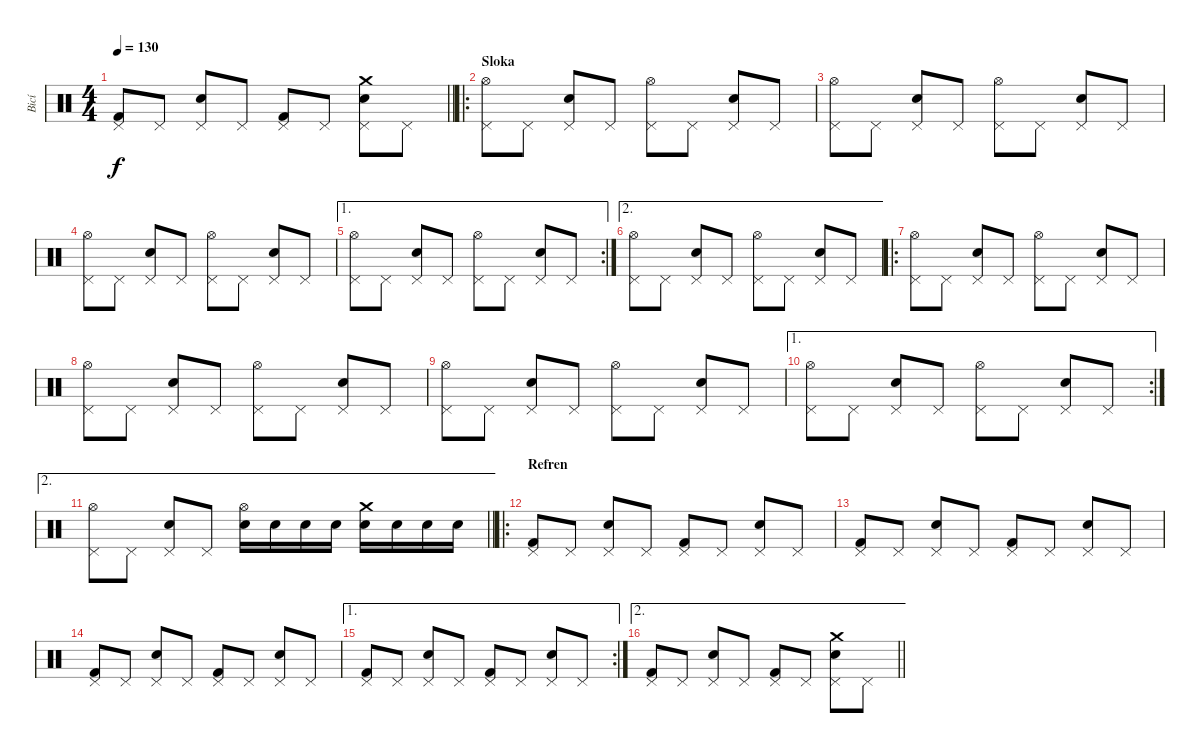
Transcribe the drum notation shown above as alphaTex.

\track ("Bicí" "Bicí") {instrument percussion}
\staff {score}
\articulation defaults
\ts (4 4)
\tempo 130
\clef neutral
\barLineRight lightlight
\ks c
("Kick (hit) 2" "Pedal Hi-Hat (hit)").8{dy f} "Pedal Hi-Hat (hit)".8 ("Snare (hit) 2" "Pedal Hi-Hat (hit)").8 "Pedal Hi-Hat (hit)".8 ("Kick (hit) 2" "Pedal Hi-Hat (hit)").8 "Pedal Hi-Hat (hit)".8 ("Snare (hit) 2" "Crash medium (hit)" "Pedal Hi-Hat (hit)").8 "Pedal Hi-Hat (hit)".8 |
\ro
\section ("" "Sloka")
("Hi-Hat (open)" "Pedal Hi-Hat (hit)").8 "Pedal Hi-Hat (hit)".8 ("Electric Snare (hit)" "Pedal Hi-Hat (hit)").8 "Pedal Hi-Hat (hit)".8 ("Hi-Hat (open)" "Pedal Hi-Hat (hit)").8 "Pedal Hi-Hat (hit)".8 ("Electric Snare (hit)" "Pedal Hi-Hat (hit)").8 "Pedal Hi-Hat (hit)".8 |
("Hi-Hat (open)" "Pedal Hi-Hat (hit)").8 "Pedal Hi-Hat (hit)".8 ("Electric Snare (hit)" "Pedal Hi-Hat (hit)").8 "Pedal Hi-Hat (hit)".8 ("Hi-Hat (open)" "Pedal Hi-Hat (hit)").8 "Pedal Hi-Hat (hit)".8 ("Electric Snare (hit)" "Pedal Hi-Hat (hit)").8 "Pedal Hi-Hat (hit)".8 |
("Hi-Hat (open)" "Pedal Hi-Hat (hit)").8 "Pedal Hi-Hat (hit)".8 ("Electric Snare (hit)" "Pedal Hi-Hat (hit)").8 "Pedal Hi-Hat (hit)".8 ("Hi-Hat (open)" "Pedal Hi-Hat (hit)").8 "Pedal Hi-Hat (hit)".8 ("Electric Snare (hit)" "Pedal Hi-Hat (hit)").8 "Pedal Hi-Hat (hit)".8 |
\ae 1
\rc 2
("Hi-Hat (open)" "Pedal Hi-Hat (hit)").8 "Pedal Hi-Hat (hit)".8 ("Electric Snare (hit)" "Pedal Hi-Hat (hit)").8 "Pedal Hi-Hat (hit)".8 ("Hi-Hat (open)" "Pedal Hi-Hat (hit)").8 "Pedal Hi-Hat (hit)".8 ("Electric Snare (hit)" "Pedal Hi-Hat (hit)").8 "Pedal Hi-Hat (hit)".8 |
\ae 2
("Hi-Hat (open)" "Pedal Hi-Hat (hit)").8 "Pedal Hi-Hat (hit)".8 ("Electric Snare (hit)" "Pedal Hi-Hat (hit)").8 "Pedal Hi-Hat (hit)".8 ("Hi-Hat (open)" "Pedal Hi-Hat (hit)").8 "Pedal Hi-Hat (hit)".8 ("Electric Snare (hit)" "Pedal Hi-Hat (hit)").8 "Pedal Hi-Hat (hit)".8 |
\ro
("Hi-Hat (open)" "Pedal Hi-Hat (hit)").8 "Pedal Hi-Hat (hit)".8 ("Electric Snare (hit)" "Pedal Hi-Hat (hit)").8 "Pedal Hi-Hat (hit)".8 ("Hi-Hat (open)" "Pedal Hi-Hat (hit)").8 "Pedal Hi-Hat (hit)".8 ("Electric Snare (hit)" "Pedal Hi-Hat (hit)").8 "Pedal Hi-Hat (hit)".8 |
("Hi-Hat (open)" "Pedal Hi-Hat (hit)").8 "Pedal Hi-Hat (hit)".8 ("Electric Snare (hit)" "Pedal Hi-Hat (hit)").8 "Pedal Hi-Hat (hit)".8 ("Hi-Hat (open)" "Pedal Hi-Hat (hit)").8 "Pedal Hi-Hat (hit)".8 ("Electric Snare (hit)" "Pedal Hi-Hat (hit)").8 "Pedal Hi-Hat (hit)".8 |
("Hi-Hat (open)" "Pedal Hi-Hat (hit)").8 "Pedal Hi-Hat (hit)".8 ("Electric Snare (hit)" "Pedal Hi-Hat (hit)").8 "Pedal Hi-Hat (hit)".8 ("Hi-Hat (open)" "Pedal Hi-Hat (hit)").8 "Pedal Hi-Hat (hit)".8 ("Electric Snare (hit)" "Pedal Hi-Hat (hit)").8 "Pedal Hi-Hat (hit)".8 |
\ae 1
\rc 2
("Hi-Hat (open)" "Pedal Hi-Hat (hit)").8 "Pedal Hi-Hat (hit)".8 ("Electric Snare (hit)" "Pedal Hi-Hat (hit)").8 "Pedal Hi-Hat (hit)".8 ("Hi-Hat (open)" "Pedal Hi-Hat (hit)").8 "Pedal Hi-Hat (hit)".8 ("Electric Snare (hit)" "Pedal Hi-Hat (hit)").8 "Pedal Hi-Hat (hit)".8 |
\ae 2
\barLineRight lightlight
("Hi-Hat (open)" "Pedal Hi-Hat (hit)").8 "Pedal Hi-Hat (hit)".8 ("Electric Snare (hit)" "Pedal Hi-Hat (hit)").8 "Pedal Hi-Hat (hit)".8 ("Hi-Hat (open)" "Electric Snare (hit)").16 "Electric Snare (hit)".16 "Electric Snare (hit)".16 "Electric Snare (hit)".16 ("Crash medium (hit)" "Electric Snare (hit)").16 "Electric Snare (hit)".16 "Electric Snare (hit)".16 "Electric Snare (hit)".16 |
\ro
\section ("" "Refren")
("Kick (hit) 2" "Pedal Hi-Hat (hit)").8 "Pedal Hi-Hat (hit)".8 ("Snare (hit) 2" "Pedal Hi-Hat (hit)").8 "Pedal Hi-Hat (hit)".8 ("Kick (hit) 2" "Pedal Hi-Hat (hit)").8 "Pedal Hi-Hat (hit)".8 ("Snare (hit) 2" "Pedal Hi-Hat (hit)").8 "Pedal Hi-Hat (hit)".8 |
("Kick (hit) 2" "Pedal Hi-Hat (hit)").8 "Pedal Hi-Hat (hit)".8 ("Snare (hit) 2" "Pedal Hi-Hat (hit)").8 "Pedal Hi-Hat (hit)".8 ("Kick (hit) 2" "Pedal Hi-Hat (hit)").8 "Pedal Hi-Hat (hit)".8 ("Snare (hit) 2" "Pedal Hi-Hat (hit)").8 "Pedal Hi-Hat (hit)".8 |
("Kick (hit) 2" "Pedal Hi-Hat (hit)").8 "Pedal Hi-Hat (hit)".8 ("Snare (hit) 2" "Pedal Hi-Hat (hit)").8 "Pedal Hi-Hat (hit)".8 ("Kick (hit) 2" "Pedal Hi-Hat (hit)").8 "Pedal Hi-Hat (hit)".8 ("Snare (hit) 2" "Pedal Hi-Hat (hit)").8 "Pedal Hi-Hat (hit)".8 |
\ae 1
\rc 2
("Kick (hit) 2" "Pedal Hi-Hat (hit)").8 "Pedal Hi-Hat (hit)".8 ("Snare (hit) 2" "Pedal Hi-Hat (hit)").8 "Pedal Hi-Hat (hit)".8 ("Kick (hit) 2" "Pedal Hi-Hat (hit)").8 "Pedal Hi-Hat (hit)".8 ("Snare (hit) 2" "Pedal Hi-Hat (hit)").8 "Pedal Hi-Hat (hit)".8 |
\ae 2
\barLineRight lightlight
("Kick (hit) 2" "Pedal Hi-Hat (hit)").8 "Pedal Hi-Hat (hit)".8 ("Snare (hit) 2" "Pedal Hi-Hat (hit)").8 "Pedal Hi-Hat (hit)".8 ("Kick (hit) 2" "Pedal Hi-Hat (hit)").8 "Pedal Hi-Hat (hit)".8 ("Snare (hit) 2" "Crash medium (hit)" "Pedal Hi-Hat (hit)").8 "Pedal Hi-Hat (hit)".8
